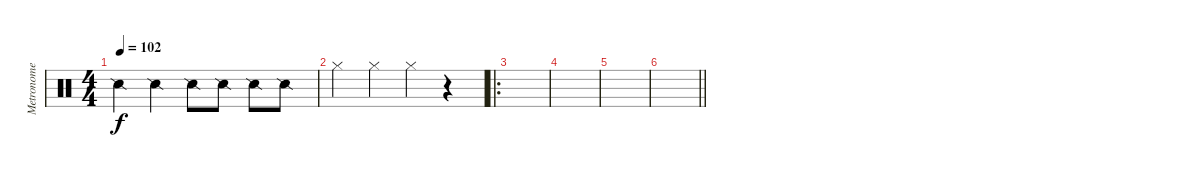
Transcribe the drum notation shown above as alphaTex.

\track ("Metronome" "Metronome") {instrument percussion}
\staff {score}
\articulation defaults
\ts (4 4)
\tempo 102
\clef neutral
\ks c "Snare (side stick) 2".4{dy f} "Snare (side stick) 2".4 "Snare (side stick) 2".8 "Snare (side stick) 2".8 "Snare (side stick) 2".8 "Snare (side stick) 2".8
|
"Hi-Hat (closed)".4 "Hi-Hat (closed)".4 "Hi-Hat (closed)".4 r.4 |
\ro
|
|
|
\barLineRight lightlight
